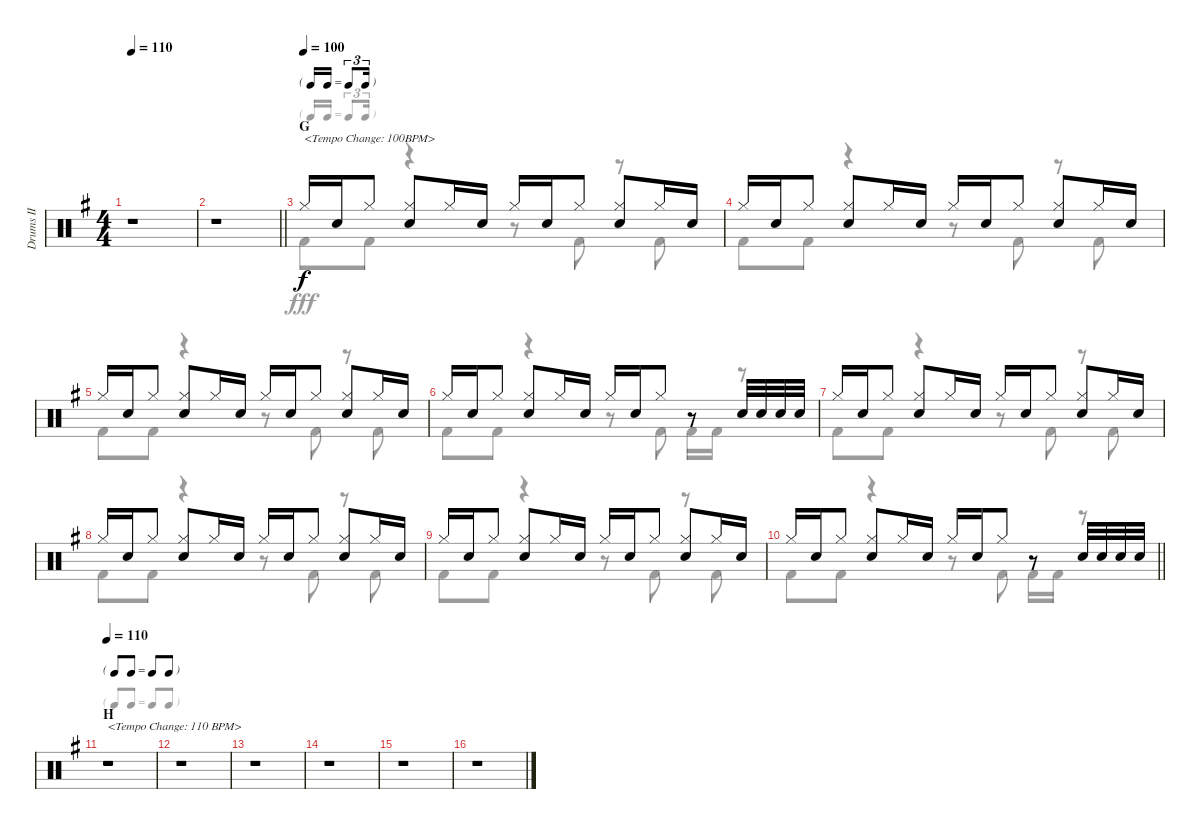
\track ("Drums II" "Drums II") {instrument percussion}
\staff {score}
\articulation defaults
\voice
\ts (4 4)
\tempo 110
\clef neutral
\ks g
r.1{dy f} |
\barLineRight lightlight
r.1 |
\tf triplet16th
\section ("" "G")
\tempo (100)
"Hi-Hat (closed)".16{txt "<Tempo Change: 100BPM>"} "Snare (hit) 2".16 "Hi-Hat (closed)".8 ("Hi-Hat (closed)" "Snare (hit) 2").8 "Hi-Hat (closed)".16 "Snare (hit) 2".16 "Hi-Hat (closed)".16 "Snare (hit) 2".16 "Hi-Hat (closed)".8 ("Hi-Hat (closed)" "Snare (hit) 2").8 "Hi-Hat (closed)".16 "Snare (hit) 2".16 |
"Hi-Hat (closed)".16 "Snare (hit) 2".16 "Hi-Hat (closed)".8 ("Hi-Hat (closed)" "Snare (hit) 2").8 "Hi-Hat (closed)".16 "Snare (hit) 2".16 "Hi-Hat (closed)".16 "Snare (hit) 2".16 "Hi-Hat (closed)".8 ("Hi-Hat (closed)" "Snare (hit) 2").8 "Hi-Hat (closed)".16 "Snare (hit) 2".16 |
"Hi-Hat (closed)".16 "Snare (hit) 2".16 "Hi-Hat (closed)".8 ("Hi-Hat (closed)" "Snare (hit) 2").8 "Hi-Hat (closed)".16 "Snare (hit) 2".16 "Hi-Hat (closed)".16 "Snare (hit) 2".16 "Hi-Hat (closed)".8 ("Hi-Hat (closed)" "Snare (hit) 2").8 "Hi-Hat (closed)".16 "Snare (hit) 2".16 |
"Hi-Hat (closed)".16 "Snare (hit) 2".16 "Hi-Hat (closed)".8 ("Hi-Hat (closed)" "Snare (hit) 2").8 "Hi-Hat (closed)".16 "Snare (hit) 2".16 "Hi-Hat (closed)".16 "Snare (hit) 2".16 "Hi-Hat (closed)".8 r.8 "Snare (hit) 2".32 "Snare (hit) 2".32 "Snare (hit) 2".32 "Snare (hit) 2".32 |
"Hi-Hat (closed)".16 "Snare (hit) 2".16 "Hi-Hat (closed)".8 ("Hi-Hat (closed)" "Snare (hit) 2").8 "Hi-Hat (closed)".16 "Snare (hit) 2".16 "Hi-Hat (closed)".16 "Snare (hit) 2".16 "Hi-Hat (closed)".8 ("Hi-Hat (closed)" "Snare (hit) 2").8 "Hi-Hat (closed)".16 "Snare (hit) 2".16 |
"Hi-Hat (closed)".16 "Snare (hit) 2".16 "Hi-Hat (closed)".8 ("Hi-Hat (closed)" "Snare (hit) 2").8 "Hi-Hat (closed)".16 "Snare (hit) 2".16 "Hi-Hat (closed)".16 "Snare (hit) 2".16 "Hi-Hat (closed)".8 ("Hi-Hat (closed)" "Snare (hit) 2").8 "Hi-Hat (closed)".16 "Snare (hit) 2".16 |
"Hi-Hat (closed)".16 "Snare (hit) 2".16 "Hi-Hat (closed)".8 ("Hi-Hat (closed)" "Snare (hit) 2").8 "Hi-Hat (closed)".16 "Snare (hit) 2".16 "Hi-Hat (closed)".16 "Snare (hit) 2".16 "Hi-Hat (closed)".8 ("Hi-Hat (closed)" "Snare (hit) 2").8 "Hi-Hat (closed)".16 "Snare (hit) 2".16 |
\barLineRight lightlight "Hi-Hat (closed)".16 "Snare (hit) 2".16 "Hi-Hat (closed)".8
("Hi-Hat (closed)" "Snare (hit) 2").8 "Hi-Hat (closed)".16 "Snare (hit) 2".16 "Hi-Hat (closed)".16 "Snare (hit) 2".16 "Hi-Hat (closed)".8 r.8 "Snare (hit) 2".32 "Snare (hit) 2".32 "Snare (hit) 2".32 "Snare (hit) 2".32 |
\tf none
\section ("" "H")
\tempo 110
r.1{txt "<Tempo Change: 110 BPM>"} |
r.1 |
r.1 |
r.1 |
r.1 |
r.1
\voice
\clef neutral
\ottava regular
\simile none
\ks g
r.1{dy fff} |
\barLineRight lightlight
r.1 |
"Kick (hit) 2".8 "Kick (hit) 2".8 r.4 r.8 "Kick (hit) 2".8 r.8 "Kick (hit) 2".8 |
"Kick (hit) 2".8 "Kick (hit) 2".8 r.4 r.8 "Kick (hit) 2".8 r.8 "Kick (hit) 2".8 |
"Kick (hit) 2".8 "Kick (hit) 2".8 r.4 r.8 "Kick (hit) 2".8 r.8 "Kick (hit) 2".8 |
"Kick (hit) 2".8 "Kick (hit) 2".8 r.4 r.8 "Kick (hit) 2".8 "Kick (hit) 2".16 "Kick (hit) 2".16 r.8 |
"Kick (hit) 2".8 "Kick (hit) 2".8 r.4 r.8 "Kick (hit) 2".8 r.8 "Kick (hit) 2".8 |
"Kick (hit) 2".8 "Kick (hit) 2".8 r.4 r.8 "Kick (hit) 2".8 r.8 "Kick (hit) 2".8 |
"Kick (hit) 2".8 "Kick (hit) 2".8 r.4 r.8 "Kick (hit) 2".8 r.8 "Kick (hit) 2".8 |
\barLineRight lightlight "Kick (hit) 2".8 "Kick (hit) 2".8
r.4 r.8 "Kick (hit) 2".8 "Kick (hit) 2".16 "Kick (hit) 2".16 r.8 |
r.1 |
r.1 |
r.1 |
r.1 |
r.1 |
r.1
